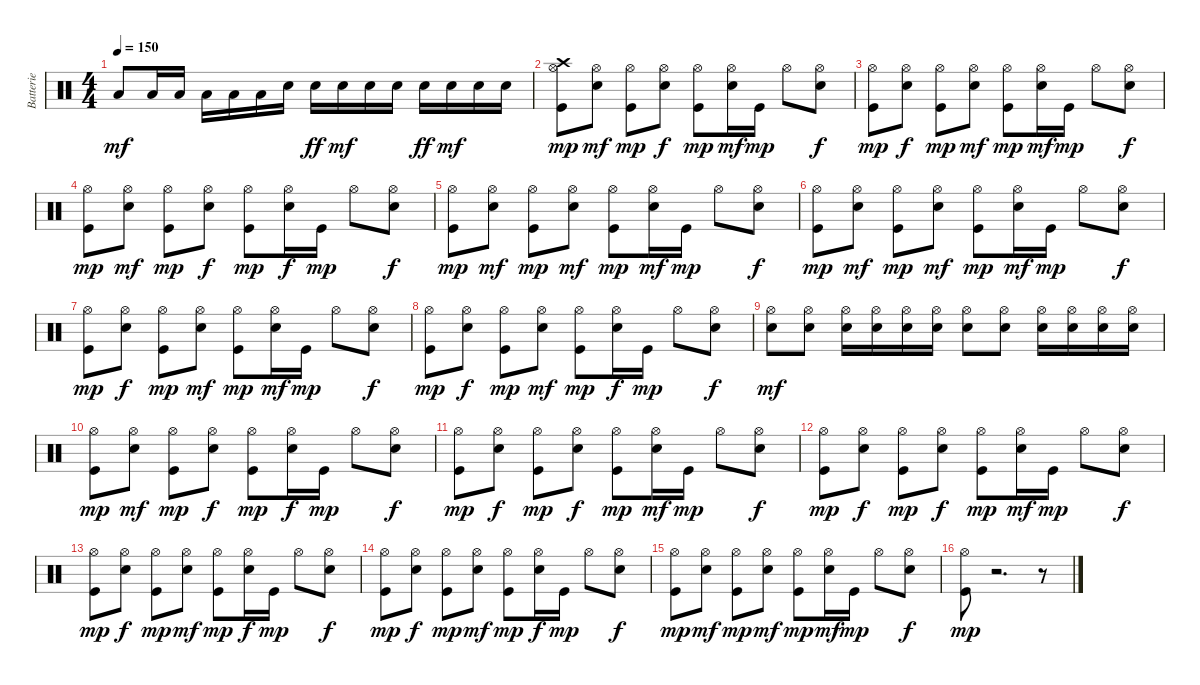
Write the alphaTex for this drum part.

\track ("Batterie" "Batterie") {instrument percussion}
\staff {score}
\articulation defaults
\ts (4 4)
\tempo 150
\clef neutral
\ks c "Low Tom (hit)".8{dy mf volume 12} "Low Tom (hit)".16{volume 12} "Low Tom (hit)".16 "Low Tom (hit)".16 "Low Tom (hit)".16 "Low Tom (hit)".16 "Snare (hit) 2".16{volume 14} "Snare (hit) 2".16{dy ff} "Snare (hit) 2".16{dy mf} "Snare (hit) 2".16 "Snare (hit) 2".16 "Snare (hit) 2".16{dy ff} "Snare (hit) 2".16{dy mf volume 16} "Snare (hit) 2".16 "Snare (hit) 2".16
|
("Hi-Hat (open)" "Crash high (hit)" "Kick (hit)").8{dy mp volume 12} ("Hi-Hat (open)" "Snare (hit) 2").8{dy mf} ("Hi-Hat (open)" "Kick (hit)").8{dy mp} ("Hi-Hat (open)" "Snare (hit) 2").8{dy f} ("Hi-Hat (open)" "Kick (hit)").8{dy mp} ("Hi-Hat (open)" "Snare (hit) 2").16{dy mf} "Kick (hit)".16{dy mp} "Hi-Hat (open)".8 ("Hi-Hat (open)" "Snare (hit) 2").8{dy f} |
("Hi-Hat (open)" "Kick (hit)").8{dy mp} ("Hi-Hat (open)" "Snare (hit) 2").8{dy f} ("Hi-Hat (open)" "Kick (hit)").8{dy mp} ("Hi-Hat (open)" "Snare (hit) 2").8{dy mf} ("Hi-Hat (open)" "Kick (hit)").8{dy mp} ("Hi-Hat (open)" "Snare (hit) 2").16{dy mf} "Kick (hit)".16{dy mp} "Hi-Hat (open)".8 ("Hi-Hat (open)" "Snare (hit) 2").8{dy f} |
("Hi-Hat (open)" "Kick (hit)").8{dy mp} ("Hi-Hat (open)" "Snare (hit) 2").8{dy mf} ("Hi-Hat (open)" "Kick (hit)").8{dy mp} ("Hi-Hat (open)" "Snare (hit) 2").8{dy f} ("Hi-Hat (open)" "Kick (hit)").8{dy mp} ("Hi-Hat (open)" "Snare (hit) 2").16{dy f} "Kick (hit)".16{dy mp} "Hi-Hat (open)".8 ("Hi-Hat (open)" "Snare (hit) 2").8{dy f} |
("Hi-Hat (open)" "Kick (hit)").8{dy mp} ("Hi-Hat (open)" "Snare (hit) 2").8{dy mf} ("Hi-Hat (open)" "Kick (hit)").8{dy mp} ("Hi-Hat (open)" "Snare (hit) 2").8{dy mf} ("Hi-Hat (open)" "Kick (hit)").8{dy mp} ("Hi-Hat (open)" "Snare (hit) 2").16{dy mf} "Kick (hit)".16{dy mp} "Hi-Hat (open)".8 ("Hi-Hat (open)" "Snare (hit) 2").8{dy f} |
("Hi-Hat (open)" "Kick (hit)").8{dy mp} ("Hi-Hat (open)" "Snare (hit) 2").8{dy mf} ("Hi-Hat (open)" "Kick (hit)").8{dy mp} ("Hi-Hat (open)" "Snare (hit) 2").8{dy mf} ("Hi-Hat (open)" "Kick (hit)").8{dy mp} ("Hi-Hat (open)" "Snare (hit) 2").16{dy mf} "Kick (hit)".16{dy mp} "Hi-Hat (open)".8 ("Hi-Hat (open)" "Snare (hit) 2").8{dy f} |
("Hi-Hat (open)" "Kick (hit)").8{dy mp} ("Hi-Hat (open)" "Snare (hit) 2").8{dy f} ("Hi-Hat (open)" "Kick (hit)").8{dy mp} ("Hi-Hat (open)" "Snare (hit) 2").8{dy mf} ("Hi-Hat (open)" "Kick (hit)").8{dy mp} ("Hi-Hat (open)" "Snare (hit) 2").16{dy mf} "Kick (hit)".16{dy mp} "Hi-Hat (open)".8 ("Hi-Hat (open)" "Snare (hit) 2").8{dy f} |
("Hi-Hat (open)" "Kick (hit)").8{dy mp} ("Hi-Hat (open)" "Snare (hit) 2").8{dy f} ("Hi-Hat (open)" "Kick (hit)").8{dy mp} ("Hi-Hat (open)" "Snare (hit) 2").8{dy mf} ("Hi-Hat (open)" "Kick (hit)").8{dy mp} ("Hi-Hat (open)" "Snare (hit) 2").16{dy f} "Kick (hit)".16{dy mp} "Hi-Hat (open)".8 ("Hi-Hat (open)" "Snare (hit) 2").8{dy f} |
("Hi-Hat (open)" "Snare (hit) 2").8{dy mf} ("Hi-Hat (open)" "Snare (hit) 2").8 ("Hi-Hat (open)" "Snare (hit) 2").16 ("Hi-Hat (open)" "Snare (hit) 2").16 ("Hi-Hat (open)" "Snare (hit) 2").16 ("Hi-Hat (open)" "Snare (hit) 2").16 ("Hi-Hat (open)" "Snare (hit) 2").8 ("Hi-Hat (open)" "Snare (hit) 2").8 ("Hi-Hat (open)" "Snare (hit) 2").16 ("Hi-Hat (open)" "Snare (hit) 2").16 ("Hi-Hat (open)" "Snare (hit) 2").16 ("Hi-Hat (open)" "Snare (hit) 2").16 |
("Hi-Hat (open)" "Kick (hit)").8{dy mp} ("Hi-Hat (open)" "Snare (hit) 2").8{dy mf} ("Hi-Hat (open)" "Kick (hit)").8{dy mp} ("Hi-Hat (open)" "Snare (hit) 2").8{dy f} ("Hi-Hat (open)" "Kick (hit)").8{dy mp} ("Hi-Hat (open)" "Snare (hit) 2").16{dy f} "Kick (hit)".16{dy mp} "Hi-Hat (open)".8 ("Hi-Hat (open)" "Snare (hit) 2").8{dy f} |
("Hi-Hat (open)" "Kick (hit)").8{dy mp} ("Hi-Hat (open)" "Snare (hit) 2").8{dy f} ("Hi-Hat (open)" "Kick (hit)").8{dy mp} ("Hi-Hat (open)" "Snare (hit) 2").8{dy f} ("Hi-Hat (open)" "Kick (hit)").8{dy mp} ("Hi-Hat (open)" "Snare (hit) 2").16{dy mf} "Kick (hit)".16{dy mp} "Hi-Hat (open)".8 ("Hi-Hat (open)" "Snare (hit) 2").8{dy f} |
("Hi-Hat (open)" "Kick (hit)").8{dy mp} ("Hi-Hat (open)" "Snare (hit) 2").8{dy f} ("Hi-Hat (open)" "Kick (hit)").8{dy mp} ("Hi-Hat (open)" "Snare (hit) 2").8{dy f} ("Hi-Hat (open)" "Kick (hit)").8{dy mp} ("Hi-Hat (open)" "Snare (hit) 2").16{dy mf} "Kick (hit)".16{dy mp} "Hi-Hat (open)".8 ("Hi-Hat (open)" "Snare (hit) 2").8{dy f} |
("Hi-Hat (open)" "Kick (hit)").8{dy mp} ("Hi-Hat (open)" "Snare (hit) 2").8{dy f} ("Hi-Hat (open)" "Kick (hit)").8{dy mp} ("Hi-Hat (open)" "Snare (hit) 2").8{dy mf} ("Hi-Hat (open)" "Kick (hit)").8{dy mp} ("Hi-Hat (open)" "Snare (hit) 2").16{dy f} "Kick (hit)".16{dy mp} "Hi-Hat (open)".8 ("Hi-Hat (open)" "Snare (hit) 2").8{dy f} |
("Hi-Hat (open)" "Kick (hit)").8{dy mp} ("Hi-Hat (open)" "Snare (hit) 2").8{dy f} ("Hi-Hat (open)" "Kick (hit)").8{dy mp} ("Hi-Hat (open)" "Snare (hit) 2").8{dy mf} ("Hi-Hat (open)" "Kick (hit)").8{dy mp} ("Hi-Hat (open)" "Snare (hit) 2").16{dy f} "Kick (hit)".16{dy mp} "Hi-Hat (open)".8 ("Hi-Hat (open)" "Snare (hit) 2").8{dy f} |
("Hi-Hat (open)" "Kick (hit)").8{dy mp} ("Hi-Hat (open)" "Snare (hit) 2").8{dy mf} ("Hi-Hat (open)" "Kick (hit)").8{dy mp} ("Hi-Hat (open)" "Snare (hit) 2").8{dy mf} ("Hi-Hat (open)" "Kick (hit)").8{dy mp} ("Hi-Hat (open)" "Snare (hit) 2").16{dy mf} "Kick (hit)".16{dy mp} "Hi-Hat (open)".8 ("Hi-Hat (open)" "Snare (hit) 2").8{dy f} |
("Hi-Hat (open)" "Kick (hit)").8{dy mp} r.2{d} r.8
